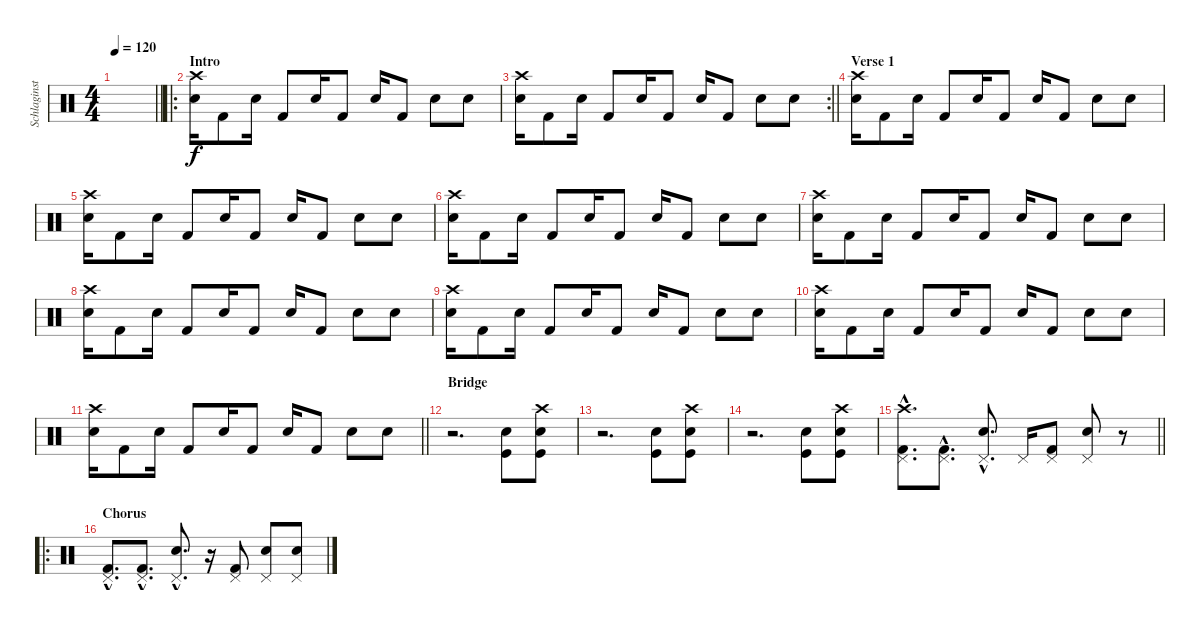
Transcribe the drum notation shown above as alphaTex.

\track ("Schlaginstrument" "Schlaginst") {instrument percussion}
\staff {score}
\articulation defaults
\ts (4 4)
\tempo 120
\clef neutral
\barLineRight lightlight
\ks c
|
\ro
\section ("" "Intro")
("Crash high (hit)" "Snare (hit) 2").16 "Kick (hit) 2".8 "Snare (hit) 2".16 "Kick (hit) 2".8 "Snare (hit) 2".16 "Kick (hit) 2".8 "Snare (hit) 2".16 "Kick (hit) 2".8 "Snare (hit) 2".8 "Snare (hit) 2".8 |
\rc 2
\barLineRight lightlight
("Crash high (hit)" "Snare (hit) 2").16 "Kick (hit) 2".8 "Snare (hit) 2".16 "Kick (hit) 2".8 "Snare (hit) 2".16 "Kick (hit) 2".8 "Snare (hit) 2".16 "Kick (hit) 2".8 "Snare (hit) 2".8 "Snare (hit) 2".8 |
\section ("" "Verse 1")
("Crash high (hit)" "Snare (hit) 2").16 "Kick (hit) 2".8 "Snare (hit) 2".16 "Kick (hit) 2".8 "Snare (hit) 2".16 "Kick (hit) 2".8 "Snare (hit) 2".16 "Kick (hit) 2".8 "Snare (hit) 2".8 "Snare (hit) 2".8 |
("Crash high (hit)" "Snare (hit) 2").16 "Kick (hit) 2".8 "Snare (hit) 2".16 "Kick (hit) 2".8 "Snare (hit) 2".16 "Kick (hit) 2".8 "Snare (hit) 2".16 "Kick (hit) 2".8 "Snare (hit) 2".8 "Snare (hit) 2".8 |
("Crash high (hit)" "Snare (hit) 2").16 "Kick (hit) 2".8 "Snare (hit) 2".16 "Kick (hit) 2".8 "Snare (hit) 2".16 "Kick (hit) 2".8 "Snare (hit) 2".16 "Kick (hit) 2".8 "Snare (hit) 2".8 "Snare (hit) 2".8 |
("Crash high (hit)" "Snare (hit) 2").16 "Kick (hit) 2".8 "Snare (hit) 2".16 "Kick (hit) 2".8 "Snare (hit) 2".16 "Kick (hit) 2".8 "Snare (hit) 2".16 "Kick (hit) 2".8 "Snare (hit) 2".8 "Snare (hit) 2".8 |
("Crash high (hit)" "Snare (hit) 2").16 "Kick (hit) 2".8 "Snare (hit) 2".16 "Kick (hit) 2".8 "Snare (hit) 2".16 "Kick (hit) 2".8 "Snare (hit) 2".16 "Kick (hit) 2".8 "Snare (hit) 2".8 "Snare (hit) 2".8 |
("Crash high (hit)" "Snare (hit) 2").16 "Kick (hit) 2".8 "Snare (hit) 2".16 "Kick (hit) 2".8 "Snare (hit) 2".16 "Kick (hit) 2".8 "Snare (hit) 2".16 "Kick (hit) 2".8 "Snare (hit) 2".8 "Snare (hit) 2".8 |
("Crash high (hit)" "Snare (hit) 2").16 "Kick (hit) 2".8 "Snare (hit) 2".16 "Kick (hit) 2".8 "Snare (hit) 2".16 "Kick (hit) 2".8 "Snare (hit) 2".16 "Kick (hit) 2".8 "Snare (hit) 2".8 "Snare (hit) 2".8 |
\barLineRight lightlight
("Crash high (hit)" "Snare (hit) 2").16 "Kick (hit) 2".8 "Snare (hit) 2".16 "Kick (hit) 2".8 "Snare (hit) 2".16 "Kick (hit) 2".8 "Snare (hit) 2".16 "Kick (hit) 2".8 "Snare (hit) 2".8 "Snare (hit) 2".8 |
\section ("" "Bridge")
r.2{d} ("Kick (hit)" "Snare (hit) 2").8 ("Crash high (hit)" "Kick (hit)" "Snare (hit) 2").8 |
r.2{d} ("Kick (hit)" "Snare (hit) 2").8 ("Crash high (hit)" "Kick (hit)" "Snare (hit) 2").8 |
r.2{d} ("Kick (hit)" "Snare (hit) 2").8 ("Crash high (hit)" "Kick (hit)" "Snare (hit) 2").8 |
\barLineRight lightlight
("Crash high (hit)"{hac} "Pedal Hi-Hat (hit)"{hac} "Kick (hit) 2"{hac}).8{d} ("Pedal Hi-Hat (hit)"{hac} "Kick (hit) 2"{hac}).8{d} ("Pedal Hi-Hat (hit)"{hac} "Snare (hit) 2"{hac}).8{d} "Pedal Hi-Hat (hit)".16 ("Pedal Hi-Hat (hit)" "Kick (hit) 2").8 ("Pedal Hi-Hat (hit)" "Snare (hit) 2").8 r.8 |
\ro
\section ("" "Chorus")
("Pedal Hi-Hat (hit)"{hac} "Kick (hit) 2"{hac}).8{d} ("Pedal Hi-Hat (hit)"{hac} "Kick (hit) 2"{hac}).8{d} ("Pedal Hi-Hat (hit)"{hac} "Snare (hit) 2"{hac}).8{d} r.16 ("Pedal Hi-Hat (hit)" "Kick (hit) 2").8 ("Pedal Hi-Hat (hit)" "Snare (hit) 2").8 ("Pedal Hi-Hat (hit)" "Snare (hit) 2").8
